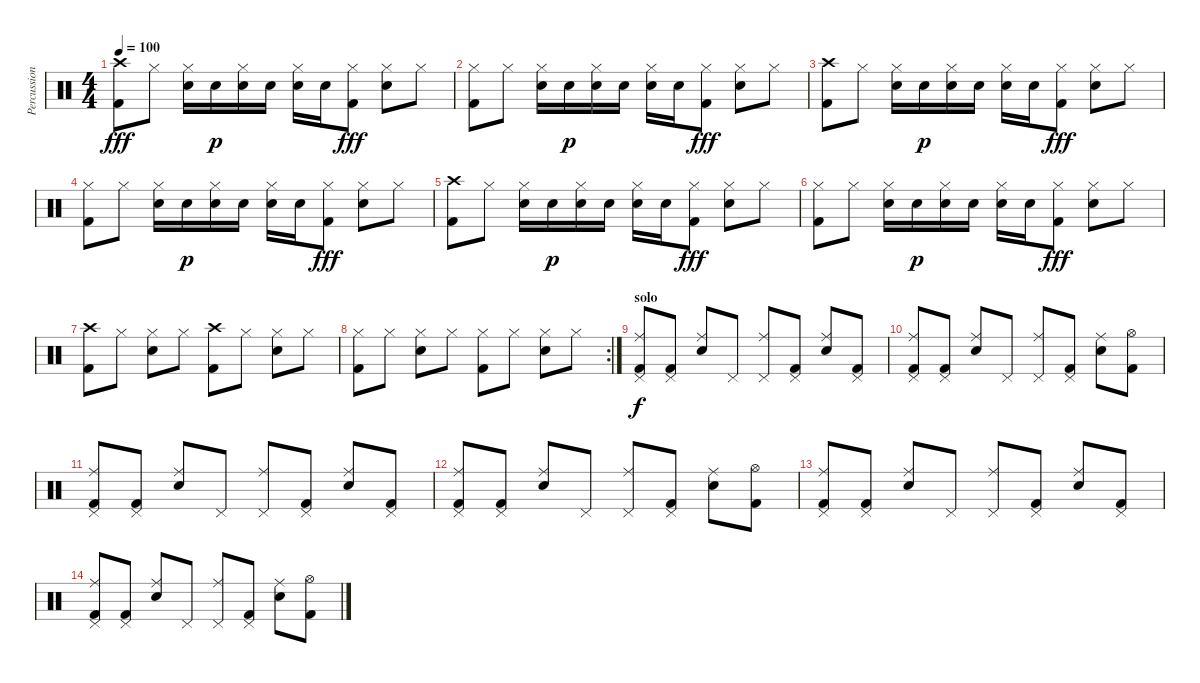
\track ("Percussions" "Percussion") {instrument percussion}
\staff {score}
\articulation defaults
\ts (4 4)
\tempo 100
\clef neutral
\ks c
("Crash high (hit)" "Kick (hit) 2").8{dy fff} "Hi-Hat (closed)".8 ("Hi-Hat (closed)" "Snare (hit) 2").16 "Snare (hit) 2".16{dy p} ("Hi-Hat (closed)" "Snare (hit) 2").16 "Snare (hit) 2".16 ("Hi-Hat (closed)" "Snare (hit) 2").16 "Snare (hit) 2".16 ("Hi-Hat (closed)" "Kick (hit) 2").8{dy fff} ("Hi-Hat (closed)" "Snare (hit) 2").8 "Hi-Hat (closed)".8 |
("Hi-Hat (closed)" "Kick (hit) 2").8 "Hi-Hat (closed)".8 ("Hi-Hat (closed)" "Snare (hit) 2").16 "Snare (hit) 2".16{dy p} ("Hi-Hat (closed)" "Snare (hit) 2").16 "Snare (hit) 2".16 ("Hi-Hat (closed)" "Snare (hit) 2").16 "Snare (hit) 2".16 ("Hi-Hat (closed)" "Kick (hit) 2").8{dy fff} ("Hi-Hat (closed)" "Snare (hit) 2").8 "Hi-Hat (closed)".8 |
("Crash high (hit)" "Kick (hit) 2").8 "Hi-Hat (closed)".8 ("Hi-Hat (closed)" "Snare (hit) 2").16 "Snare (hit) 2".16{dy p} ("Hi-Hat (closed)" "Snare (hit) 2").16 "Snare (hit) 2".16 ("Hi-Hat (closed)" "Snare (hit) 2").16 "Snare (hit) 2".16 ("Hi-Hat (closed)" "Kick (hit) 2").8{dy fff} ("Hi-Hat (closed)" "Snare (hit) 2").8 "Hi-Hat (closed)".8 |
("Hi-Hat (closed)" "Kick (hit) 2").8 "Hi-Hat (closed)".8 ("Hi-Hat (closed)" "Snare (hit) 2").16 "Snare (hit) 2".16{dy p} ("Hi-Hat (closed)" "Snare (hit) 2").16 "Snare (hit) 2".16 ("Hi-Hat (closed)" "Snare (hit) 2").16 "Snare (hit) 2".16 ("Hi-Hat (closed)" "Kick (hit) 2").8{dy fff} ("Hi-Hat (closed)" "Snare (hit) 2").8 "Hi-Hat (closed)".8 |
("Crash high (hit)" "Kick (hit) 2").8 "Hi-Hat (closed)".8 ("Hi-Hat (closed)" "Snare (hit) 2").16 "Snare (hit) 2".16{dy p} ("Hi-Hat (closed)" "Snare (hit) 2").16 "Snare (hit) 2".16 ("Hi-Hat (closed)" "Snare (hit) 2").16 "Snare (hit) 2".16 ("Hi-Hat (closed)" "Kick (hit) 2").8{dy fff} ("Hi-Hat (closed)" "Snare (hit) 2").8 "Hi-Hat (closed)".8 |
("Hi-Hat (closed)" "Kick (hit) 2").8 "Hi-Hat (closed)".8 ("Hi-Hat (closed)" "Snare (hit) 2").16 "Snare (hit) 2".16{dy p} ("Hi-Hat (closed)" "Snare (hit) 2").16 "Snare (hit) 2".16 ("Hi-Hat (closed)" "Snare (hit) 2").16 "Snare (hit) 2".16 ("Hi-Hat (closed)" "Kick (hit) 2").8{dy fff} ("Hi-Hat (closed)" "Snare (hit) 2").8 "Hi-Hat (closed)".8 |
("Crash high (hit)" "Kick (hit) 2").8 "Hi-Hat (closed)".8 ("Hi-Hat (closed)" "Snare (hit) 2").8 "Hi-Hat (closed)".8 ("Crash high (hit)" "Kick (hit) 2").8 "Hi-Hat (closed)".8 ("Hi-Hat (closed)" "Snare (hit) 2").8 "Hi-Hat (closed)".8 |
\rc 2
("Hi-Hat (closed)" "Kick (hit) 2").8 "Hi-Hat (closed)".8 ("Hi-Hat (closed)" "Snare (hit) 2").8 "Hi-Hat (closed)".8 ("Hi-Hat (closed)" "Kick (hit) 2").8 "Hi-Hat (closed)".8 ("Hi-Hat (closed)" "Snare (hit) 2").8 "Hi-Hat (closed)".8 |
\section ("" "solo")
("Pedal Hi-Hat (hit)" "Kick (hit) 2" "Ride (middle)").8{dy f} ("Pedal Hi-Hat (hit)" "Kick (hit) 2").8 ("Ride (middle)" "Snare (hit) 2").8 "Pedal Hi-Hat (hit)".8 ("Pedal Hi-Hat (hit)" "Ride (middle)").8 ("Pedal Hi-Hat (hit)" "Kick (hit) 2").8 ("Ride (middle)" "Snare (hit) 2").8 ("Pedal Hi-Hat (hit)" "Kick (hit) 2").8 |
("Pedal Hi-Hat (hit)" "Kick (hit) 2" "Ride (middle)").8 ("Pedal Hi-Hat (hit)" "Kick (hit) 2").8 ("Ride (middle)" "Snare (hit) 2").8 "Pedal Hi-Hat (hit)".8 ("Pedal Hi-Hat (hit)" "Ride (middle)").8 ("Pedal Hi-Hat (hit)" "Kick (hit) 2").8 ("Ride (middle)" "Snare (hit) 2").8 ("Hi-Hat (open)" "Kick (hit) 2").8 |
("Pedal Hi-Hat (hit)" "Kick (hit) 2" "Ride (middle)").8 ("Pedal Hi-Hat (hit)" "Kick (hit) 2").8 ("Ride (middle)" "Snare (hit) 2").8 "Pedal Hi-Hat (hit)".8 ("Pedal Hi-Hat (hit)" "Ride (middle)").8 ("Pedal Hi-Hat (hit)" "Kick (hit) 2").8 ("Ride (middle)" "Snare (hit) 2").8 ("Pedal Hi-Hat (hit)" "Kick (hit) 2").8 |
("Pedal Hi-Hat (hit)" "Kick (hit) 2" "Ride (middle)").8 ("Pedal Hi-Hat (hit)" "Kick (hit) 2").8 ("Ride (middle)" "Snare (hit) 2").8 "Pedal Hi-Hat (hit)".8 ("Pedal Hi-Hat (hit)" "Ride (middle)").8 ("Pedal Hi-Hat (hit)" "Kick (hit) 2").8 ("Ride (middle)" "Snare (hit) 2").8 ("Hi-Hat (open)" "Kick (hit) 2").8 |
("Pedal Hi-Hat (hit)" "Kick (hit) 2" "Ride (middle)").8 ("Pedal Hi-Hat (hit)" "Kick (hit) 2").8 ("Ride (middle)" "Snare (hit) 2").8 "Pedal Hi-Hat (hit)".8 ("Pedal Hi-Hat (hit)" "Ride (middle)").8 ("Pedal Hi-Hat (hit)" "Kick (hit) 2").8 ("Ride (middle)" "Snare (hit) 2").8 ("Pedal Hi-Hat (hit)" "Kick (hit) 2").8 |
("Pedal Hi-Hat (hit)" "Kick (hit) 2" "Ride (middle)").8 ("Pedal Hi-Hat (hit)" "Kick (hit) 2").8 ("Ride (middle)" "Snare (hit) 2").8 "Pedal Hi-Hat (hit)".8 ("Pedal Hi-Hat (hit)" "Ride (middle)").8 ("Pedal Hi-Hat (hit)" "Kick (hit) 2").8 ("Ride (middle)" "Snare (hit) 2").8 ("Hi-Hat (open)" "Kick (hit) 2").8
